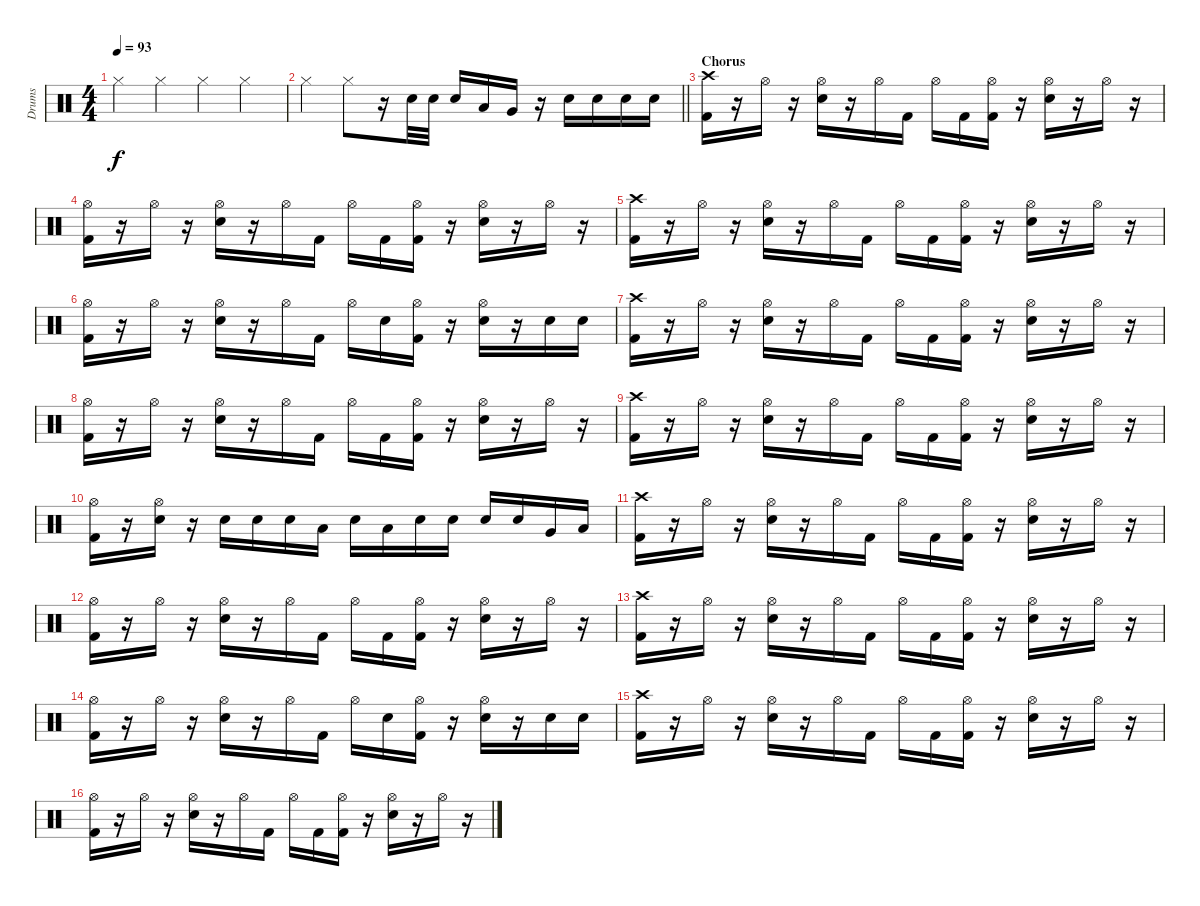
\track ("Drums" "Drums") {instrument percussion}
\staff {score}
\articulation defaults
\ts (4 4)
\tempo 93
\clef neutral
\ks c "Hi-Hat (closed)".4{dy f} "Hi-Hat (closed)".4 "Hi-Hat (closed)".4 "Hi-Hat (closed)".4
|
\barLineRight lightlight "Hi-Hat (closed)".4 "Hi-Hat (closed)".8
r.16 "Electric Snare (hit)".32 "Electric Snare (hit)".32 "Electric Snare (hit)".16 "Low Tom (hit)".16 "Very Low Tom (hit)".16 r.16 "Electric Snare (hit)".16 "Electric Snare (hit)".16 "Electric Snare (hit)".16 "Electric Snare (hit)".16 |
\section ("" "Chorus")
("Crash high (hit)" "Kick (hit) 2").16 r.16 "Hi-Hat (open)".16 r.16 ("Hi-Hat (open)" "Electric Snare (hit)").16 r.16 "Hi-Hat (open)".16 "Kick (hit) 2".16 "Hi-Hat (open)".16 "Kick (hit) 2".16 ("Hi-Hat (open)" "Kick (hit) 2").16 r.16 ("Hi-Hat (open)" "Electric Snare (hit)").16 r.16 "Hi-Hat (open)".16 r.16 |
("Hi-Hat (open)" "Kick (hit) 2").16 r.16 "Hi-Hat (open)".16 r.16 ("Hi-Hat (open)" "Electric Snare (hit)").16 r.16 "Hi-Hat (open)".16 "Kick (hit) 2".16 "Hi-Hat (open)".16 "Kick (hit) 2".16 ("Hi-Hat (open)" "Kick (hit) 2").16 r.16 ("Hi-Hat (open)" "Electric Snare (hit)").16 r.16 "Hi-Hat (open)".16 r.16 |
("Crash high (hit)" "Kick (hit) 2").16 r.16 "Hi-Hat (open)".16 r.16 ("Hi-Hat (open)" "Electric Snare (hit)").16 r.16 "Hi-Hat (open)".16 "Kick (hit) 2".16 "Hi-Hat (open)".16 "Kick (hit) 2".16 ("Hi-Hat (open)" "Kick (hit) 2").16 r.16 ("Hi-Hat (open)" "Electric Snare (hit)").16 r.16 "Hi-Hat (open)".16 r.16 |
("Hi-Hat (open)" "Kick (hit) 2").16 r.16 "Hi-Hat (open)".16 r.16 ("Hi-Hat (open)" "Electric Snare (hit)").16 r.16 "Hi-Hat (open)".16 "Kick (hit) 2".16 "Hi-Hat (open)".16 "Electric Snare (hit)".16 ("Hi-Hat (open)" "Kick (hit) 2").16 r.16 ("Hi-Hat (open)" "Electric Snare (hit)").16 r.16 "Electric Snare (hit)".16 "Electric Snare (hit)".16 |
("Crash high (hit)" "Kick (hit) 2").16 r.16 "Hi-Hat (open)".16 r.16 ("Hi-Hat (open)" "Electric Snare (hit)").16 r.16 "Hi-Hat (open)".16 "Kick (hit) 2".16 "Hi-Hat (open)".16 "Kick (hit) 2".16 ("Hi-Hat (open)" "Kick (hit) 2").16 r.16 ("Hi-Hat (open)" "Electric Snare (hit)").16 r.16 "Hi-Hat (open)".16 r.16 |
("Hi-Hat (open)" "Kick (hit) 2").16 r.16 "Hi-Hat (open)".16 r.16 ("Hi-Hat (open)" "Electric Snare (hit)").16 r.16 "Hi-Hat (open)".16 "Kick (hit) 2".16 "Hi-Hat (open)".16 "Kick (hit) 2".16 ("Hi-Hat (open)" "Kick (hit) 2").16 r.16 ("Hi-Hat (open)" "Electric Snare (hit)").16 r.16 "Hi-Hat (open)".16 r.16 |
("Crash high (hit)" "Kick (hit) 2").16 r.16 "Hi-Hat (open)".16 r.16 ("Hi-Hat (open)" "Electric Snare (hit)").16 r.16 "Hi-Hat (open)".16 "Kick (hit) 2".16 "Hi-Hat (open)".16 "Kick (hit) 2".16 ("Hi-Hat (open)" "Kick (hit) 2").16 r.16 ("Hi-Hat (open)" "Electric Snare (hit)").16 r.16 "Hi-Hat (open)".16 r.16 |
("Hi-Hat (open)" "Kick (hit) 2").16 r.16 ("Hi-Hat (open)" "Electric Snare (hit)").16 r.16 "Electric Snare (hit)".16 "Electric Snare (hit)".16 "Electric Snare (hit)".16 "Low Tom (hit)".16 "Electric Snare (hit)".16 "Low Tom (hit)".16 "Electric Snare (hit)".16 "Electric Snare (hit)".16 "Electric Snare (hit)".16 "Electric Snare (hit)".16 "Very Low Tom (hit)".16 "Low Tom (hit)".16 |
("Crash high (hit)" "Kick (hit) 2").16 r.16 "Hi-Hat (open)".16 r.16 ("Hi-Hat (open)" "Electric Snare (hit)").16 r.16 "Hi-Hat (open)".16 "Kick (hit) 2".16 "Hi-Hat (open)".16 "Kick (hit) 2".16 ("Hi-Hat (open)" "Kick (hit) 2").16 r.16 ("Hi-Hat (open)" "Electric Snare (hit)").16 r.16 "Hi-Hat (open)".16 r.16 |
("Hi-Hat (open)" "Kick (hit) 2").16 r.16 "Hi-Hat (open)".16 r.16 ("Hi-Hat (open)" "Electric Snare (hit)").16 r.16 "Hi-Hat (open)".16 "Kick (hit) 2".16 "Hi-Hat (open)".16 "Kick (hit) 2".16 ("Hi-Hat (open)" "Kick (hit) 2").16 r.16 ("Hi-Hat (open)" "Electric Snare (hit)").16 r.16 "Hi-Hat (open)".16 r.16 |
("Crash high (hit)" "Kick (hit) 2").16 r.16 "Hi-Hat (open)".16 r.16 ("Hi-Hat (open)" "Electric Snare (hit)").16 r.16 "Hi-Hat (open)".16 "Kick (hit) 2".16 "Hi-Hat (open)".16 "Kick (hit) 2".16 ("Hi-Hat (open)" "Kick (hit) 2").16 r.16 ("Hi-Hat (open)" "Electric Snare (hit)").16 r.16 "Hi-Hat (open)".16 r.16 |
("Hi-Hat (open)" "Kick (hit) 2").16 r.16 "Hi-Hat (open)".16 r.16 ("Hi-Hat (open)" "Electric Snare (hit)").16 r.16 "Hi-Hat (open)".16 "Kick (hit) 2".16 "Hi-Hat (open)".16 "Electric Snare (hit)".16 ("Hi-Hat (open)" "Kick (hit) 2").16 r.16 ("Hi-Hat (open)" "Electric Snare (hit)").16 r.16 "Electric Snare (hit)".16 "Electric Snare (hit)".16 |
("Crash high (hit)" "Kick (hit) 2").16 r.16 "Hi-Hat (open)".16 r.16 ("Hi-Hat (open)" "Electric Snare (hit)").16 r.16 "Hi-Hat (open)".16 "Kick (hit) 2".16 "Hi-Hat (open)".16 "Kick (hit) 2".16 ("Hi-Hat (open)" "Kick (hit) 2").16 r.16 ("Hi-Hat (open)" "Electric Snare (hit)").16 r.16 "Hi-Hat (open)".16 r.16 |
("Hi-Hat (open)" "Kick (hit) 2").16 r.16 "Hi-Hat (open)".16 r.16 ("Hi-Hat (open)" "Electric Snare (hit)").16 r.16 "Hi-Hat (open)".16 "Kick (hit) 2".16 "Hi-Hat (open)".16 "Kick (hit) 2".16 ("Hi-Hat (open)" "Kick (hit) 2").16 r.16 ("Hi-Hat (open)" "Electric Snare (hit)").16 r.16 "Hi-Hat (open)".16 r.16
